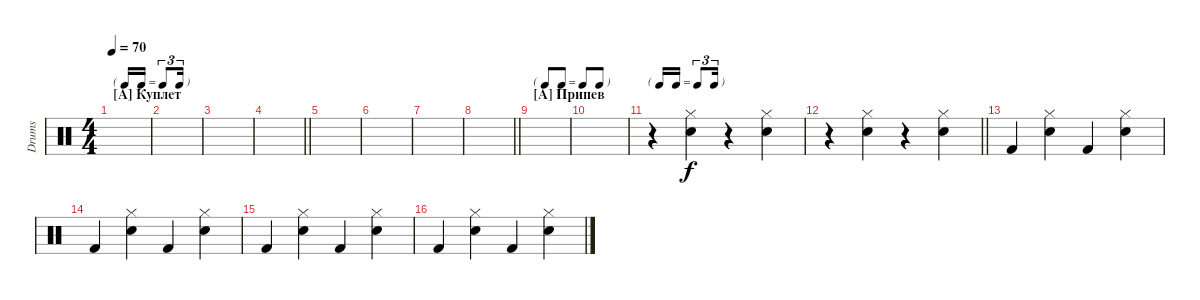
\defaultSystemsLayout 4
\bracketExtendMode groupsimilarinstruments
\otherSystemsTrackNameOrientation horizontal
\track ("Drumkit" "Drums") {instrument percussion}
\staff {score}
\articulation defaults
\ts (4 4)
\tf triplet16th
\section ("A" "Куплет")
\scale
0.538603
\tempo 70
\accidentals auto
\clef neutral
\ottava regular
\simile none
\scale
0.472222
\ks c
|
\scale
0.461371
\scale
0.263889 |
\scale
0.51804
\scale
0.263889 |
\scale
0.481932
\scale
0.333333
\barLineRight lightlight
|
\scale
0.53394
\scale
0.333333 |
\scale
0.465584
\scale
0.333333 |
\scale
0.518727
\scale
0.333333 |
\scale
0.480535
\scale
0.333333
\barLineRight lightlight
|
\tf none
\section ("A" "Припев")
\scale
0.333333 |
\scale
0.333333 |
\tf triplet16th
\scale
0.333333 r.4{beam Down} ("Snare (hit) 2" "Hi-Hat (closed)").4{beam Down} r.4{beam Down} ("Snare (hit) 2" "Hi-Hat (closed)").4{beam Down} |
\scale
0.333333
\barLineRight lightlight
r.4{beam Down} ("Snare (hit) 2" "Hi-Hat (closed)").4{beam Down} r.4{beam Down} ("Snare (hit) 2" "Hi-Hat (closed)").4{beam Down} |
\scale
0.477892 "Kick (hit) 2".4{beam Up} ("Snare (hit) 2" "Hi-Hat (closed)").4{beam Down} "Kick (hit) 2".4{beam Up} ("Snare (hit) 2" "Hi-Hat (closed)").4{beam Down} |
\scale
0.522408 "Kick (hit) 2".4{beam Up} ("Snare (hit) 2" "Hi-Hat (closed)").4{beam Down} "Kick (hit) 2".4{beam Up} ("Snare (hit) 2" "Hi-Hat (closed)").4{beam Down} |
\scale
0.469064 "Kick (hit) 2".4{beam Up} ("Snare (hit) 2" "Hi-Hat (closed)").4{beam Down} "Kick (hit) 2".4{beam Up} ("Snare (hit) 2" "Hi-Hat (closed)").4{beam Down} |
\scale
0.461601 "Kick (hit) 2".4{beam Up} ("Snare (hit) 2" "Hi-Hat (closed)").4{beam Down} "Kick (hit) 2".4{beam Up} ("Snare (hit) 2" "Hi-Hat (closed)").4{beam Down}
